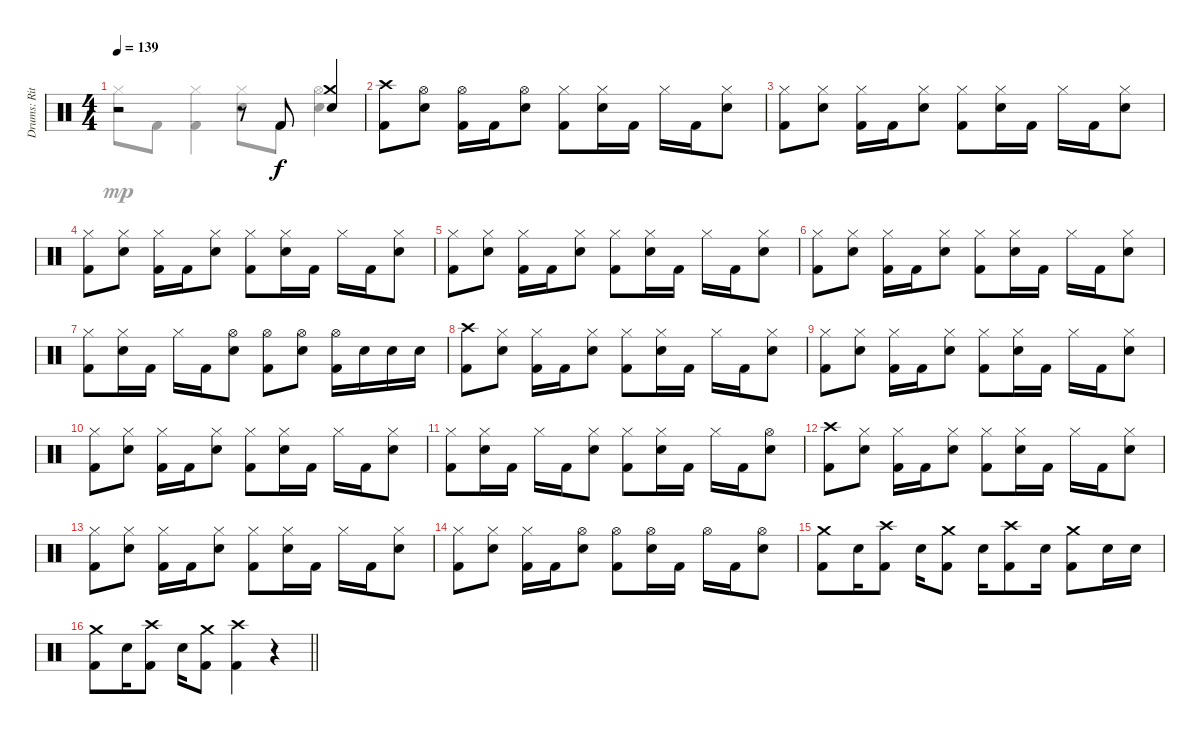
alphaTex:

\track ("Drums: Ritsu Tainaka" "Drums: Rit") {instrument percussion}
\staff {score}
\articulation defaults
\voice
\ts (4 4)
\tempo 139
\clef neutral
\ks c
r.2{dy f} r.8 "Kick (hit) 2".8 ("Crash medium (hit)" "Electric Snare (hit)").4 |
("Crash high (hit)" "Kick (hit) 2").8 ("Hi-Hat (open)" "Electric Snare (hit)").8 ("Hi-Hat (open)" "Kick (hit) 2").16 "Kick (hit) 2".16 ("Hi-Hat (open)" "Electric Snare (hit)").8 ("Hi-Hat (closed)" "Kick (hit) 2").8 ("Hi-Hat (closed)" "Electric Snare (hit)").16 "Kick (hit) 2".16 "Hi-Hat (closed)".16 "Kick (hit) 2".16 ("Hi-Hat (closed)" "Electric Snare (hit)").8 |
("Hi-Hat (closed)" "Kick (hit) 2").8 ("Hi-Hat (closed)" "Electric Snare (hit)").8 ("Hi-Hat (closed)" "Kick (hit) 2").16 "Kick (hit) 2".16 ("Hi-Hat (closed)" "Electric Snare (hit)").8 ("Hi-Hat (closed)" "Kick (hit) 2").8 ("Hi-Hat (closed)" "Electric Snare (hit)").16 "Kick (hit) 2".16 "Hi-Hat (closed)".16 "Kick (hit) 2".16 ("Hi-Hat (closed)" "Electric Snare (hit)").8 |
("Hi-Hat (closed)" "Kick (hit) 2").8 ("Hi-Hat (closed)" "Electric Snare (hit)").8 ("Hi-Hat (closed)" "Kick (hit) 2").16 "Kick (hit) 2".16 ("Hi-Hat (closed)" "Electric Snare (hit)").8 ("Hi-Hat (closed)" "Kick (hit) 2").8 ("Hi-Hat (closed)" "Electric Snare (hit)").16 "Kick (hit) 2".16 "Hi-Hat (closed)".16 "Kick (hit) 2".16 ("Hi-Hat (closed)" "Electric Snare (hit)").8 |
("Hi-Hat (closed)" "Kick (hit) 2").8 ("Hi-Hat (closed)" "Electric Snare (hit)").8 ("Hi-Hat (closed)" "Kick (hit) 2").16 "Kick (hit) 2".16 ("Hi-Hat (closed)" "Electric Snare (hit)").8 ("Hi-Hat (closed)" "Kick (hit) 2").8 ("Hi-Hat (closed)" "Electric Snare (hit)").16 "Kick (hit) 2".16 "Hi-Hat (closed)".16 "Kick (hit) 2".16 ("Hi-Hat (closed)" "Electric Snare (hit)").8 |
("Hi-Hat (closed)" "Kick (hit) 2").8 ("Hi-Hat (closed)" "Electric Snare (hit)").8 ("Hi-Hat (closed)" "Kick (hit) 2").16 "Kick (hit) 2".16 ("Hi-Hat (closed)" "Electric Snare (hit)").8 ("Hi-Hat (closed)" "Kick (hit) 2").8 ("Hi-Hat (closed)" "Electric Snare (hit)").16 "Kick (hit) 2".16 "Hi-Hat (closed)".16 "Kick (hit) 2".16 ("Hi-Hat (closed)" "Electric Snare (hit)").8 |
("Hi-Hat (closed)" "Kick (hit) 2").8 ("Hi-Hat (closed)" "Electric Snare (hit)").16 "Kick (hit) 2".16 "Hi-Hat (closed)".16 "Kick (hit) 2".16 ("Hi-Hat (open)" "Electric Snare (hit)").8 ("Hi-Hat (open)" "Kick (hit) 2").8 ("Hi-Hat (open)" "Electric Snare (hit)").8 ("Hi-Hat (open)" "Kick (hit) 2").16 "Electric Snare (hit)".16 "Electric Snare (hit)".16 "Electric Snare (hit)".16 |
("Crash high (hit)" "Kick (hit) 2").8 ("Hi-Hat (closed)" "Electric Snare (hit)").8 ("Hi-Hat (closed)" "Kick (hit) 2").16 "Kick (hit) 2".16 ("Hi-Hat (closed)" "Electric Snare (hit)").8 ("Hi-Hat (closed)" "Kick (hit) 2").8 ("Hi-Hat (closed)" "Electric Snare (hit)").16 "Kick (hit) 2".16 "Hi-Hat (closed)".16 "Kick (hit) 2".16 ("Hi-Hat (closed)" "Electric Snare (hit)").8 |
("Hi-Hat (closed)" "Kick (hit) 2").8 ("Hi-Hat (closed)" "Electric Snare (hit)").8 ("Hi-Hat (closed)" "Kick (hit) 2").16 "Kick (hit) 2".16 ("Hi-Hat (closed)" "Electric Snare (hit)").8 ("Hi-Hat (closed)" "Kick (hit) 2").8 ("Hi-Hat (closed)" "Electric Snare (hit)").16 "Kick (hit) 2".16 "Hi-Hat (closed)".16 "Kick (hit) 2".16 ("Hi-Hat (closed)" "Electric Snare (hit)").8 |
("Hi-Hat (closed)" "Kick (hit) 2").8 ("Hi-Hat (closed)" "Electric Snare (hit)").8 ("Hi-Hat (closed)" "Kick (hit) 2").16 "Kick (hit) 2".16 ("Hi-Hat (closed)" "Electric Snare (hit)").8 ("Hi-Hat (closed)" "Kick (hit) 2").8 ("Hi-Hat (closed)" "Electric Snare (hit)").16 "Kick (hit) 2".16 "Hi-Hat (closed)".16 "Kick (hit) 2".16 ("Hi-Hat (closed)" "Electric Snare (hit)").8 |
("Hi-Hat (closed)" "Kick (hit) 2").8 ("Hi-Hat (closed)" "Electric Snare (hit)").16 "Kick (hit) 2".16 "Hi-Hat (closed)".16 "Kick (hit) 2".16 ("Hi-Hat (closed)" "Electric Snare (hit)").8 ("Hi-Hat (closed)" "Kick (hit) 2").8 ("Hi-Hat (closed)" "Electric Snare (hit)").16 "Kick (hit) 2".16 "Hi-Hat (closed)".16 "Kick (hit) 2".16 ("Hi-Hat (open)" "Electric Snare (hit)").8 |
("Crash high (hit)" "Kick (hit) 2").8 ("Hi-Hat (closed)" "Electric Snare (hit)").8 ("Hi-Hat (closed)" "Kick (hit) 2").16 "Kick (hit) 2".16 ("Hi-Hat (closed)" "Electric Snare (hit)").8 ("Hi-Hat (closed)" "Kick (hit) 2").8 ("Hi-Hat (closed)" "Electric Snare (hit)").16 "Kick (hit) 2".16 "Hi-Hat (closed)".16 "Kick (hit) 2".16 ("Hi-Hat (closed)" "Electric Snare (hit)").8 |
("Hi-Hat (closed)" "Kick (hit) 2").8 ("Hi-Hat (closed)" "Electric Snare (hit)").8 ("Hi-Hat (closed)" "Kick (hit) 2").16 "Kick (hit) 2".16 ("Hi-Hat (closed)" "Electric Snare (hit)").8 ("Hi-Hat (closed)" "Kick (hit) 2").8 ("Hi-Hat (closed)" "Electric Snare (hit)").16 "Kick (hit) 2".16 "Hi-Hat (closed)".16 "Kick (hit) 2".16 ("Hi-Hat (closed)" "Electric Snare (hit)").8 |
("Hi-Hat (closed)" "Kick (hit) 2").8 ("Hi-Hat (closed)" "Electric Snare (hit)").8 ("Hi-Hat (closed)" "Kick (hit) 2").16 "Kick (hit) 2".16 ("Hi-Hat (open)" "Electric Snare (hit)").8 ("Hi-Hat (open)" "Kick (hit) 2").8 ("Hi-Hat (open)" "Electric Snare (hit)").16 "Kick (hit) 2".16 "Hi-Hat (open)".16 "Kick (hit) 2".16 ("Hi-Hat (open)" "Electric Snare (hit)").8 |
("Crash medium (hit)" "Kick (hit) 2").8 "Electric Snare (hit)".16 ("Crash high (hit)" "Kick (hit) 2").8 "Electric Snare (hit)".16 ("Crash medium (hit)" "Kick (hit) 2").8 "Electric Snare (hit)".16 ("Crash high (hit)" "Kick (hit) 2").8 "Electric Snare (hit)".16 ("Crash medium (hit)" "Kick (hit) 2").8 "Electric Snare (hit)".16 "Electric Snare (hit)".16 |
\barLineRight lightlight
("Crash medium (hit)" "Kick (hit) 2").8 "Electric Snare (hit)".16 ("Crash high (hit)" "Kick (hit) 2").8 "Electric Snare (hit)".16 ("Crash medium (hit)" "Kick (hit) 2").8 ("Crash high (hit)" "Kick (hit) 2").4 r.4{volume 0}
\voice
\clef neutral
\ottava regular
\simile none
\ks c "Hi-Hat (closed)".8{dy mp} "Kick (hit) 2".8
("Hi-Hat (closed)" "Kick (hit) 2").4 ("Hi-Hat (closed)" "Snare (hit) 2").8 "Kick (hit) 2".8 ("Hi-Hat (open)" "Snare (hit) 2").4 |
|
|
|
|
|
|
|
|
|
|
|
|
|
|
\barLineRight lightlight
